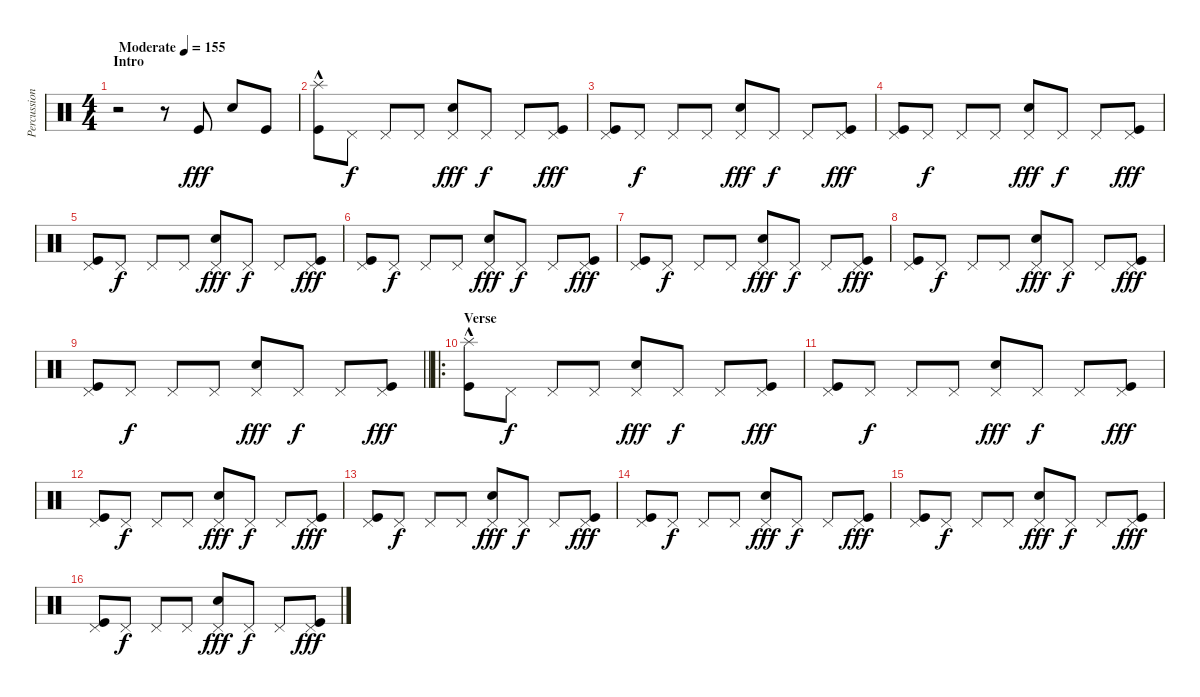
\track ("Percussion" "Percussion") {instrument percussion}
\staff {score}
\articulation defaults
\ts (4 4)
\section ("" "Intro")
\tempo (155 "Moderate")
\clef neutral
\ks c
r.2{dy fff} r.8 "Kick (hit)".8 "Snare (hit) 2".8 "Kick (hit)".8 |
("Splash (hit)"{hac} "Kick (hit)").8 "Pedal Hi-Hat (hit)".8{dy f} "Pedal Hi-Hat (hit)".8 "Pedal Hi-Hat (hit)".8 ("Pedal Hi-Hat (hit)" "Snare (hit) 2").8{dy fff} "Pedal Hi-Hat (hit)".8{dy f} "Pedal Hi-Hat (hit)".8 ("Pedal Hi-Hat (hit)" "Kick (hit)").8{dy fff} |
("Pedal Hi-Hat (hit)" "Kick (hit)").8 "Pedal Hi-Hat (hit)".8{dy f} "Pedal Hi-Hat (hit)".8 "Pedal Hi-Hat (hit)".8 ("Pedal Hi-Hat (hit)" "Snare (hit) 2").8{dy fff} "Pedal Hi-Hat (hit)".8{dy f} "Pedal Hi-Hat (hit)".8 ("Pedal Hi-Hat (hit)" "Kick (hit)").8{dy fff} |
("Pedal Hi-Hat (hit)" "Kick (hit)").8 "Pedal Hi-Hat (hit)".8{dy f} "Pedal Hi-Hat (hit)".8 "Pedal Hi-Hat (hit)".8 ("Pedal Hi-Hat (hit)" "Snare (hit) 2").8{dy fff} "Pedal Hi-Hat (hit)".8{dy f} "Pedal Hi-Hat (hit)".8 ("Pedal Hi-Hat (hit)" "Kick (hit)").8{dy fff} |
("Pedal Hi-Hat (hit)" "Kick (hit)").8 "Pedal Hi-Hat (hit)".8{dy f} "Pedal Hi-Hat (hit)".8 "Pedal Hi-Hat (hit)".8 ("Pedal Hi-Hat (hit)" "Snare (hit) 2").8{dy fff} "Pedal Hi-Hat (hit)".8{dy f} "Pedal Hi-Hat (hit)".8 ("Pedal Hi-Hat (hit)" "Kick (hit)").8{dy fff} |
("Pedal Hi-Hat (hit)" "Kick (hit)").8 "Pedal Hi-Hat (hit)".8{dy f} "Pedal Hi-Hat (hit)".8 "Pedal Hi-Hat (hit)".8 ("Pedal Hi-Hat (hit)" "Snare (hit) 2").8{dy fff} "Pedal Hi-Hat (hit)".8{dy f} "Pedal Hi-Hat (hit)".8 ("Pedal Hi-Hat (hit)" "Kick (hit)").8{dy fff} |
("Pedal Hi-Hat (hit)" "Kick (hit)").8 "Pedal Hi-Hat (hit)".8{dy f} "Pedal Hi-Hat (hit)".8 "Pedal Hi-Hat (hit)".8 ("Pedal Hi-Hat (hit)" "Snare (hit) 2").8{dy fff} "Pedal Hi-Hat (hit)".8{dy f} "Pedal Hi-Hat (hit)".8 ("Pedal Hi-Hat (hit)" "Kick (hit)").8{dy fff} |
("Pedal Hi-Hat (hit)" "Kick (hit)").8 "Pedal Hi-Hat (hit)".8{dy f} "Pedal Hi-Hat (hit)".8 "Pedal Hi-Hat (hit)".8 ("Pedal Hi-Hat (hit)" "Snare (hit) 2").8{dy fff} "Pedal Hi-Hat (hit)".8{dy f} "Pedal Hi-Hat (hit)".8 ("Pedal Hi-Hat (hit)" "Kick (hit)").8{dy fff} |
\barLineRight lightlight
("Pedal Hi-Hat (hit)" "Kick (hit)").8 "Pedal Hi-Hat (hit)".8{dy f} "Pedal Hi-Hat (hit)".8 "Pedal Hi-Hat (hit)".8 ("Pedal Hi-Hat (hit)" "Snare (hit) 2").8{dy fff} "Pedal Hi-Hat (hit)".8{dy f} "Pedal Hi-Hat (hit)".8 ("Pedal Hi-Hat (hit)" "Kick (hit)").8{dy fff} |
\ro
\section ("" "Verse")
("Splash (hit)"{hac} "Kick (hit)").8 "Pedal Hi-Hat (hit)".8{dy f} "Pedal Hi-Hat (hit)".8 "Pedal Hi-Hat (hit)".8 ("Pedal Hi-Hat (hit)" "Snare (hit) 2").8{dy fff} "Pedal Hi-Hat (hit)".8{dy f} "Pedal Hi-Hat (hit)".8 ("Pedal Hi-Hat (hit)" "Kick (hit)").8{dy fff} |
("Pedal Hi-Hat (hit)" "Kick (hit)").8 "Pedal Hi-Hat (hit)".8{dy f} "Pedal Hi-Hat (hit)".8 "Pedal Hi-Hat (hit)".8 ("Pedal Hi-Hat (hit)" "Snare (hit) 2").8{dy fff} "Pedal Hi-Hat (hit)".8{dy f} "Pedal Hi-Hat (hit)".8 ("Pedal Hi-Hat (hit)" "Kick (hit)").8{dy fff} |
("Pedal Hi-Hat (hit)" "Kick (hit)").8 "Pedal Hi-Hat (hit)".8{dy f} "Pedal Hi-Hat (hit)".8 "Pedal Hi-Hat (hit)".8 ("Pedal Hi-Hat (hit)" "Snare (hit) 2").8{dy fff} "Pedal Hi-Hat (hit)".8{dy f} "Pedal Hi-Hat (hit)".8 ("Pedal Hi-Hat (hit)" "Kick (hit)").8{dy fff} |
("Pedal Hi-Hat (hit)" "Kick (hit)").8 "Pedal Hi-Hat (hit)".8{dy f} "Pedal Hi-Hat (hit)".8 "Pedal Hi-Hat (hit)".8 ("Pedal Hi-Hat (hit)" "Snare (hit) 2").8{dy fff} "Pedal Hi-Hat (hit)".8{dy f} "Pedal Hi-Hat (hit)".8 ("Pedal Hi-Hat (hit)" "Kick (hit)").8{dy fff} |
("Pedal Hi-Hat (hit)" "Kick (hit)").8 "Pedal Hi-Hat (hit)".8{dy f} "Pedal Hi-Hat (hit)".8 "Pedal Hi-Hat (hit)".8 ("Pedal Hi-Hat (hit)" "Snare (hit) 2").8{dy fff} "Pedal Hi-Hat (hit)".8{dy f} "Pedal Hi-Hat (hit)".8 ("Pedal Hi-Hat (hit)" "Kick (hit)").8{dy fff} |
("Pedal Hi-Hat (hit)" "Kick (hit)").8 "Pedal Hi-Hat (hit)".8{dy f} "Pedal Hi-Hat (hit)".8 "Pedal Hi-Hat (hit)".8 ("Pedal Hi-Hat (hit)" "Snare (hit) 2").8{dy fff} "Pedal Hi-Hat (hit)".8{dy f} "Pedal Hi-Hat (hit)".8 ("Pedal Hi-Hat (hit)" "Kick (hit)").8{dy fff} |
("Pedal Hi-Hat (hit)" "Kick (hit)").8 "Pedal Hi-Hat (hit)".8{dy f} "Pedal Hi-Hat (hit)".8 "Pedal Hi-Hat (hit)".8 ("Pedal Hi-Hat (hit)" "Snare (hit) 2").8{dy fff} "Pedal Hi-Hat (hit)".8{dy f} "Pedal Hi-Hat (hit)".8 ("Pedal Hi-Hat (hit)" "Kick (hit)").8{dy fff}
